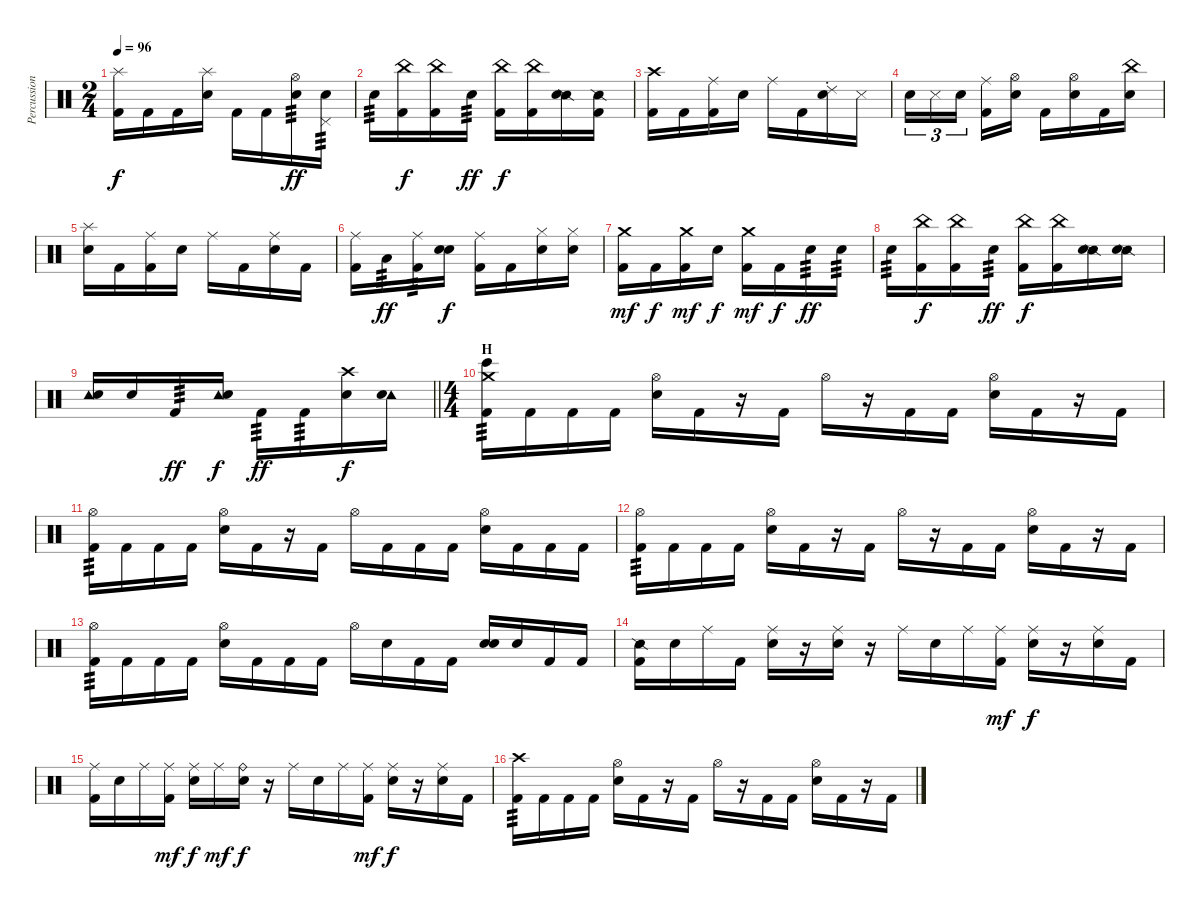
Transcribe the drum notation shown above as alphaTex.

\track ("Percussion" "Percussion") {instrument percussion}
\staff {score}
\articulation defaults
\ts (2 4)
\tempo 96
\clef neutral
\ks c
("Splash (hit)" "Kick (hit) 2").16{dy f} "Kick (hit) 2".16 "Kick (hit) 2".16 ("Splash (hit)" "Snare (hit) 2").16 "Kick (hit) 2".16 "Kick (hit) 2".16 ("Hi-Hat (open)" "Snare (hit) 2").16{tp 3 dy ff} ("Pedal Hi-Hat (hit)" "Snare (hit) 2").16{tp 3} |
"Snare (hit) 2".16{tp 3} ("China (hit)" "Kick (hit) 2").16{dy f} ("China (hit)" "Kick (hit) 2").16 "Snare (hit) 2".16{tp 3 dy ff} ("China (hit)" "Kick (hit) 2").16{dy f} ("China (hit)" "Kick (hit) 2").16 ("Snare (side stick) 2" "Snare (hit) 2").16 ("Snare (side stick) 2" "Kick (hit) 2").16 |
("Crash high (hit)" "Kick (hit) 2").16 "Kick (hit) 2".16 ("Ride (middle)" "Kick (hit) 2").16 "Snare (hit) 2".16 "Ride (middle)".16 "Kick (hit) 2".16 ("Ride (choke) 2" "Snare (hit) 2").16 "Metronome (hit)".16 |
"Snare (hit) 2".16{tu (3 2)} "Metronome (hit)".16{tu (3 2)} "Snare (hit) 2".16{tu (3 2) beam splitsecondary} ("Ride (middle)" "Kick (hit) 2").16 ("Hi-Hat (open)" "Snare (hit) 2").16 "Kick (hit) 2".16 ("Hi-Hat (open)" "Snare (hit) 2").16 "Kick (hit) 2".16 ("China (hit)" "Snare (hit) 2").16 |
("Splash (hit)" "Snare (hit) 2").16 "Kick (hit) 2".16 ("Ride (middle)" "Kick (hit) 2").16 "Snare (hit) 2".16 "Ride (middle)".16 "Kick (hit) 2".16 ("Ride (middle)" "Snare (hit) 2").16 "Kick (hit) 2".16 |
("Ride (middle)" "Kick (hit) 2").16 "Low Tom (hit)".16{tp 3 dy ff} ("Ride (middle)" "Kick (hit) 2").16{tp 3} ("Snare (hit)" "Snare (hit) 2").16{dy f} ("Ride (middle)" "Kick (hit) 2").16 "Kick (hit) 2".16 ("Hi-Hat (closed)" "Snare (hit) 2").16 ("Hi-Hat (closed)" "Snare (hit) 2").16 |
("Crash medium (hit)" "Kick (hit) 2").16{dy mf} "Kick (hit) 2".16{dy f} ("Crash medium (hit)" "Kick (hit) 2").16{dy mf} "Snare (hit) 2".16{dy f} ("Crash medium (hit)" "Kick (hit) 2").16{dy mf} "Kick (hit) 2".16{dy f} "Snare (hit) 2".16{tp 3 dy ff} "Snare (hit) 2".16{tp 3} |
"Snare (hit) 2".16{tp 3} ("China (hit)" "Kick (hit) 2").16{dy f} ("China (hit)" "Kick (hit) 2").16 "Snare (hit) 2".16{tp 3 dy ff} ("China (hit)" "Kick (hit) 2").16{dy f} ("China (hit)" "Kick (hit) 2").16 ("Snare (side stick) 2" "Snare (hit) 2").16 ("Snare (side stick) 2" "Snare (hit) 2").16 |
\barLineRight lightlight
("Tambourine (hit)" "Snare (hit) 2").16 "Snare (hit) 2".16 "Kick (hit) 2".16{tp 3 dy ff} ("Tambourine (hit)" "Snare (hit) 2").16{dy f} "Kick (hit) 2".16{tp 3 dy ff} "Kick (hit) 2".16{tp 3} ("Crash high (hit)" "Snare (hit) 2").16{dy f} ("Tambourine (hit)" "Snare (hit) 2").16 |
\ts (4 4)
\section ("" "H")
("Crash medium (hit)" "Bongo High (hit)" "Kick (hit) 2").16{tp 3} "Kick (hit) 2".16 "Kick (hit) 2".16 "Kick (hit) 2".16 ("Hi-Hat (open)" "Snare (hit) 2").16 "Kick (hit) 2".16 r.16 "Kick (hit) 2".16 "Hi-Hat (open)".16 r.16 "Kick (hit) 2".16 "Kick (hit) 2".16 ("Hi-Hat (open)" "Snare (hit) 2").16 "Kick (hit) 2".16 r.16 "Kick (hit) 2".16 |
("Hi-Hat (open)" "Kick (hit) 2").16{tp 3} "Kick (hit) 2".16 "Kick (hit) 2".16 "Kick (hit) 2".16 ("Hi-Hat (open)" "Snare (hit) 2").16 "Kick (hit) 2".16 r.16 "Kick (hit) 2".16 "Hi-Hat (open)".16 "Kick (hit) 2".16 "Kick (hit) 2".16 "Kick (hit) 2".16 ("Hi-Hat (open)" "Snare (hit) 2").16 "Kick (hit) 2".16 "Kick (hit) 2".16 "Kick (hit) 2".16 |
("Hi-Hat (open)" "Kick (hit) 2").16{tp 3} "Kick (hit) 2".16 "Kick (hit) 2".16 "Kick (hit) 2".16 ("Hi-Hat (open)" "Snare (hit) 2").16 "Kick (hit) 2".16 r.16 "Kick (hit) 2".16 "Hi-Hat (open)".16 r.16 "Kick (hit) 2".16 "Kick (hit) 2".16 ("Hi-Hat (open)" "Snare (hit) 2").16 "Kick (hit) 2".16 r.16 "Kick (hit) 2".16 |
("Hi-Hat (open)" "Kick (hit) 2").16{tp 3} "Kick (hit) 2".16 "Kick (hit) 2".16 "Kick (hit) 2".16 ("Hi-Hat (open)" "Snare (hit) 2").16 "Kick (hit) 2".16 "Kick (hit) 2".16 "Kick (hit) 2".16 "Hi-Hat (open)".16 "Snare (hit) 2".16 "Kick (hit) 2".16 "Kick (hit) 2".16 ("Snare (hit)" "Snare (hit) 2").16 "Snare (hit) 2".16 "Kick (hit) 2".16 "Kick (hit) 2".16 |
("Snare (side stick) 2" "Kick (hit) 2").16 "Snare (hit) 2".16 "Ride (middle)".16 "Kick (hit) 2".16 ("Ride (middle)" "Snare (hit) 2").16 r.16 ("Ride (middle)" "Snare (hit) 2").16 r.16 "Ride (middle)".16 "Snare (hit) 2".16 "Ride (middle)".16 ("Ride (middle)" "Kick (hit) 2").16{dy mf} ("Ride (middle)" "Snare (hit) 2").16{dy f} r.16 ("Ride (middle)" "Snare (hit) 2").16 "Kick (hit) 2".16 |
("Ride (middle)" "Kick (hit) 2").16 "Snare (hit) 2".16 "Ride (middle)".16 ("Ride (middle)" "Kick (hit) 2").16{dy mf} ("Ride (middle)" "Snare (hit) 2").16{dy f} "Ride (middle)".16{dy mf} ("Ride (bell)" "Snare (hit) 2").16{dy f} r.16 "Ride (middle)".16 "Snare (hit) 2".16 "Ride (middle)".16 ("Ride (middle)" "Kick (hit) 2").16{dy mf} ("Ride (middle)" "Snare (hit) 2").16{dy f} r.16 ("Ride (middle)" "Snare (hit) 2").16 "Kick (hit) 2".16 |
("Crash high (hit)" "Kick (hit) 2").16{tp 3} "Kick (hit) 2".16 "Kick (hit) 2".16 "Kick (hit) 2".16 ("Hi-Hat (open)" "Snare (hit) 2").16 "Kick (hit) 2".16 r.16 "Kick (hit) 2".16 "Hi-Hat (open)".16 r.16 "Kick (hit) 2".16 "Kick (hit) 2".16 ("Hi-Hat (open)" "Snare (hit) 2").16 "Kick (hit) 2".16 r.16 "Kick (hit) 2".16
